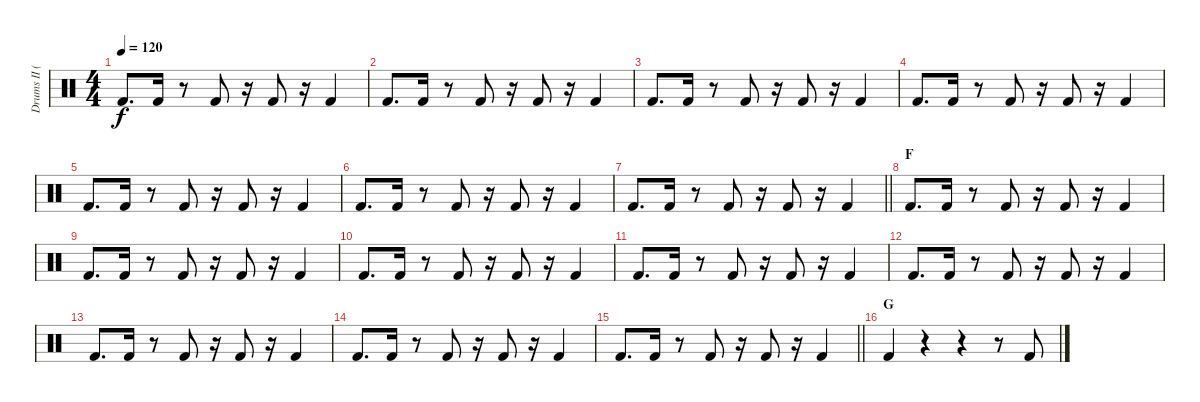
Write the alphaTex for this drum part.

\track ("Drums II (Ruka)" "Drums II (") {instrument percussion}
\staff {score}
\articulation defaults
\ts (4 4)
\tempo 120
\clef neutral
\ks c "Kick (hit) 2".8{d dy f} "Kick (hit) 2".16
r.8 "Kick (hit) 2".8 r.16 "Kick (hit) 2".8 r.16 "Kick (hit) 2".4 |
"Kick (hit) 2".8{d} "Kick (hit) 2".16 r.8 "Kick (hit) 2".8 r.16 "Kick (hit) 2".8 r.16 "Kick (hit) 2".4 |
"Kick (hit) 2".8{d} "Kick (hit) 2".16 r.8 "Kick (hit) 2".8 r.16 "Kick (hit) 2".8 r.16 "Kick (hit) 2".4 |
"Kick (hit) 2".8{d} "Kick (hit) 2".16 r.8 "Kick (hit) 2".8 r.16 "Kick (hit) 2".8 r.16 "Kick (hit) 2".4 |
"Kick (hit) 2".8{d} "Kick (hit) 2".16 r.8 "Kick (hit) 2".8 r.16 "Kick (hit) 2".8 r.16 "Kick (hit) 2".4 |
"Kick (hit) 2".8{d} "Kick (hit) 2".16 r.8 "Kick (hit) 2".8 r.16 "Kick (hit) 2".8 r.16 "Kick (hit) 2".4 |
\barLineRight lightlight "Kick (hit) 2".8{d} "Kick (hit) 2".16
r.8 "Kick (hit) 2".8 r.16 "Kick (hit) 2".8 r.16 "Kick (hit) 2".4 |
\section ("" "F")
"Kick (hit) 2".8{d} "Kick (hit) 2".16 r.8 "Kick (hit) 2".8 r.16 "Kick (hit) 2".8 r.16 "Kick (hit) 2".4 |
"Kick (hit) 2".8{d} "Kick (hit) 2".16 r.8 "Kick (hit) 2".8 r.16 "Kick (hit) 2".8 r.16 "Kick (hit) 2".4 |
"Kick (hit) 2".8{d} "Kick (hit) 2".16 r.8 "Kick (hit) 2".8 r.16 "Kick (hit) 2".8 r.16 "Kick (hit) 2".4 |
"Kick (hit) 2".8{d} "Kick (hit) 2".16 r.8 "Kick (hit) 2".8 r.16 "Kick (hit) 2".8 r.16 "Kick (hit) 2".4 |
"Kick (hit) 2".8{d} "Kick (hit) 2".16 r.8 "Kick (hit) 2".8 r.16 "Kick (hit) 2".8 r.16 "Kick (hit) 2".4 |
"Kick (hit) 2".8{d} "Kick (hit) 2".16 r.8 "Kick (hit) 2".8 r.16 "Kick (hit) 2".8 r.16 "Kick (hit) 2".4 |
"Kick (hit) 2".8{d} "Kick (hit) 2".16 r.8 "Kick (hit) 2".8 r.16 "Kick (hit) 2".8 r.16 "Kick (hit) 2".4 |
\barLineRight lightlight "Kick (hit) 2".8{d} "Kick (hit) 2".16
r.8 "Kick (hit) 2".8 r.16 "Kick (hit) 2".8 r.16 "Kick (hit) 2".4 |
\section ("" "G")
"Kick (hit) 2".4 r.4 r.4 r.8 "Kick (hit) 2".8
